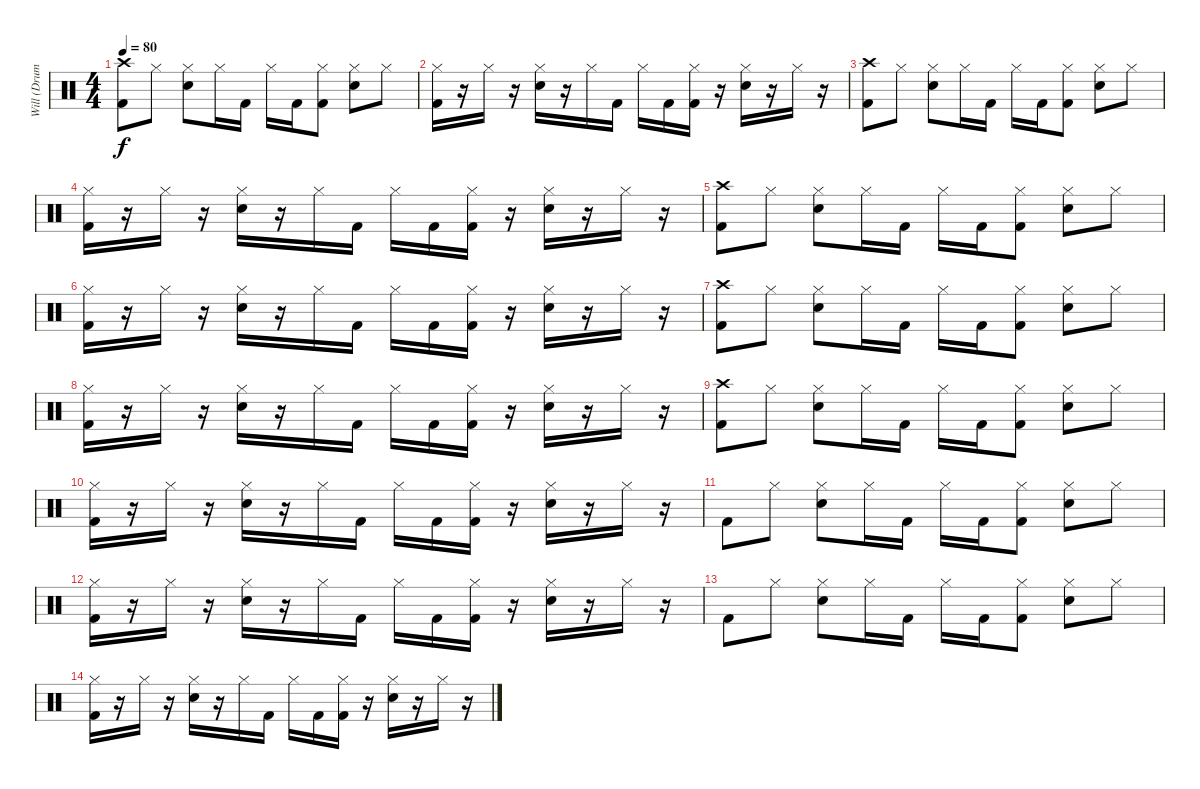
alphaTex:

\track ("Will (Drums)" "Will (Drum") {instrument percussion}
\staff {score}
\articulation defaults
\ts (4 4)
\tempo 80
\clef neutral
\ks c
("Crash high (hit)" "Kick (hit) 2").8{dy f} "Hi-Hat (closed)".8 ("Hi-Hat (closed)" "Snare (hit) 2").8 "Hi-Hat (closed)".16 "Kick (hit) 2".16 "Hi-Hat (closed)".16 "Kick (hit) 2".16 ("Hi-Hat (closed)" "Kick (hit) 2").8 ("Hi-Hat (closed)" "Snare (hit) 2").8 "Hi-Hat (closed)".8 |
("Hi-Hat (closed)" "Kick (hit) 2").16 r.16 "Hi-Hat (closed)".16 r.16 ("Hi-Hat (closed)" "Snare (hit) 2").16 r.16 "Hi-Hat (closed)".16 "Kick (hit) 2".16 "Hi-Hat (closed)".16 "Kick (hit) 2".16 ("Hi-Hat (closed)" "Kick (hit) 2").16 r.16 ("Hi-Hat (closed)" "Snare (hit) 2").16 r.16 "Hi-Hat (closed)".16 r.16 |
("Crash high (hit)" "Kick (hit) 2").8 "Hi-Hat (closed)".8 ("Hi-Hat (closed)" "Snare (hit) 2").8 "Hi-Hat (closed)".16 "Kick (hit) 2".16 "Hi-Hat (closed)".16 "Kick (hit) 2".16 ("Hi-Hat (closed)" "Kick (hit) 2").8 ("Hi-Hat (closed)" "Snare (hit) 2").8 "Hi-Hat (closed)".8 |
("Hi-Hat (closed)" "Kick (hit) 2").16 r.16 "Hi-Hat (closed)".16 r.16 ("Hi-Hat (closed)" "Snare (hit) 2").16 r.16 "Hi-Hat (closed)".16 "Kick (hit) 2".16 "Hi-Hat (closed)".16 "Kick (hit) 2".16 ("Hi-Hat (closed)" "Kick (hit) 2").16 r.16 ("Hi-Hat (closed)" "Snare (hit) 2").16 r.16 "Hi-Hat (closed)".16 r.16 |
("Crash high (hit)" "Kick (hit) 2").8 "Hi-Hat (closed)".8 ("Hi-Hat (closed)" "Snare (hit) 2").8 "Hi-Hat (closed)".16 "Kick (hit) 2".16 "Hi-Hat (closed)".16 "Kick (hit) 2".16 ("Hi-Hat (closed)" "Kick (hit) 2").8 ("Hi-Hat (closed)" "Snare (hit) 2").8 "Hi-Hat (closed)".8 |
("Hi-Hat (closed)" "Kick (hit) 2").16 r.16 "Hi-Hat (closed)".16 r.16 ("Hi-Hat (closed)" "Snare (hit) 2").16 r.16 "Hi-Hat (closed)".16 "Kick (hit) 2".16 "Hi-Hat (closed)".16 "Kick (hit) 2".16 ("Hi-Hat (closed)" "Kick (hit) 2").16 r.16 ("Hi-Hat (closed)" "Snare (hit) 2").16 r.16 "Hi-Hat (closed)".16 r.16 |
("Crash high (hit)" "Kick (hit) 2").8 "Hi-Hat (closed)".8 ("Hi-Hat (closed)" "Snare (hit) 2").8 "Hi-Hat (closed)".16 "Kick (hit) 2".16 "Hi-Hat (closed)".16 "Kick (hit) 2".16 ("Hi-Hat (closed)" "Kick (hit) 2").8 ("Hi-Hat (closed)" "Snare (hit) 2").8 "Hi-Hat (closed)".8 |
("Hi-Hat (closed)" "Kick (hit) 2").16 r.16 "Hi-Hat (closed)".16 r.16 ("Hi-Hat (closed)" "Snare (hit) 2").16 r.16 "Hi-Hat (closed)".16 "Kick (hit) 2".16 "Hi-Hat (closed)".16 "Kick (hit) 2".16 ("Hi-Hat (closed)" "Kick (hit) 2").16 r.16 ("Hi-Hat (closed)" "Snare (hit) 2").16 r.16 "Hi-Hat (closed)".16 r.16 |
("Crash high (hit)" "Kick (hit) 2").8 "Hi-Hat (closed)".8 ("Hi-Hat (closed)" "Snare (hit) 2").8 "Hi-Hat (closed)".16 "Kick (hit) 2".16 "Hi-Hat (closed)".16 "Kick (hit) 2".16 ("Hi-Hat (closed)" "Kick (hit) 2").8 ("Hi-Hat (closed)" "Snare (hit) 2").8 "Hi-Hat (closed)".8 |
("Hi-Hat (closed)" "Kick (hit) 2").16 r.16 "Hi-Hat (closed)".16 r.16 ("Hi-Hat (closed)" "Snare (hit) 2").16 r.16 "Hi-Hat (closed)".16 "Kick (hit) 2".16 "Hi-Hat (closed)".16 "Kick (hit) 2".16 ("Hi-Hat (closed)" "Kick (hit) 2").16 r.16 ("Hi-Hat (closed)" "Snare (hit) 2").16 r.16 "Hi-Hat (closed)".16 r.16 |
"Kick (hit) 2".8 "Hi-Hat (closed)".8 ("Hi-Hat (closed)" "Snare (hit) 2").8 "Hi-Hat (closed)".16 "Kick (hit) 2".16 "Hi-Hat (closed)".16 "Kick (hit) 2".16 ("Hi-Hat (closed)" "Kick (hit) 2").8 ("Hi-Hat (closed)" "Snare (hit) 2").8 "Hi-Hat (closed)".8 |
("Hi-Hat (closed)" "Kick (hit) 2").16 r.16 "Hi-Hat (closed)".16 r.16 ("Hi-Hat (closed)" "Snare (hit) 2").16 r.16 "Hi-Hat (closed)".16 "Kick (hit) 2".16 "Hi-Hat (closed)".16 "Kick (hit) 2".16 ("Hi-Hat (closed)" "Kick (hit) 2").16 r.16 ("Hi-Hat (closed)" "Snare (hit) 2").16 r.16 "Hi-Hat (closed)".16 r.16 |
"Kick (hit) 2".8 "Hi-Hat (closed)".8 ("Hi-Hat (closed)" "Snare (hit) 2").8 "Hi-Hat (closed)".16 "Kick (hit) 2".16 "Hi-Hat (closed)".16 "Kick (hit) 2".16 ("Hi-Hat (closed)" "Kick (hit) 2").8 ("Hi-Hat (closed)" "Snare (hit) 2").8 "Hi-Hat (closed)".8 |
("Hi-Hat (closed)" "Kick (hit) 2").16 r.16 "Hi-Hat (closed)".16 r.16 ("Hi-Hat (closed)" "Snare (hit) 2").16 r.16 "Hi-Hat (closed)".16 "Kick (hit) 2".16 "Hi-Hat (closed)".16 "Kick (hit) 2".16 ("Hi-Hat (closed)" "Kick (hit) 2").16 r.16 ("Hi-Hat (closed)" "Snare (hit) 2").16 r.16 "Hi-Hat (closed)".16 r.16
